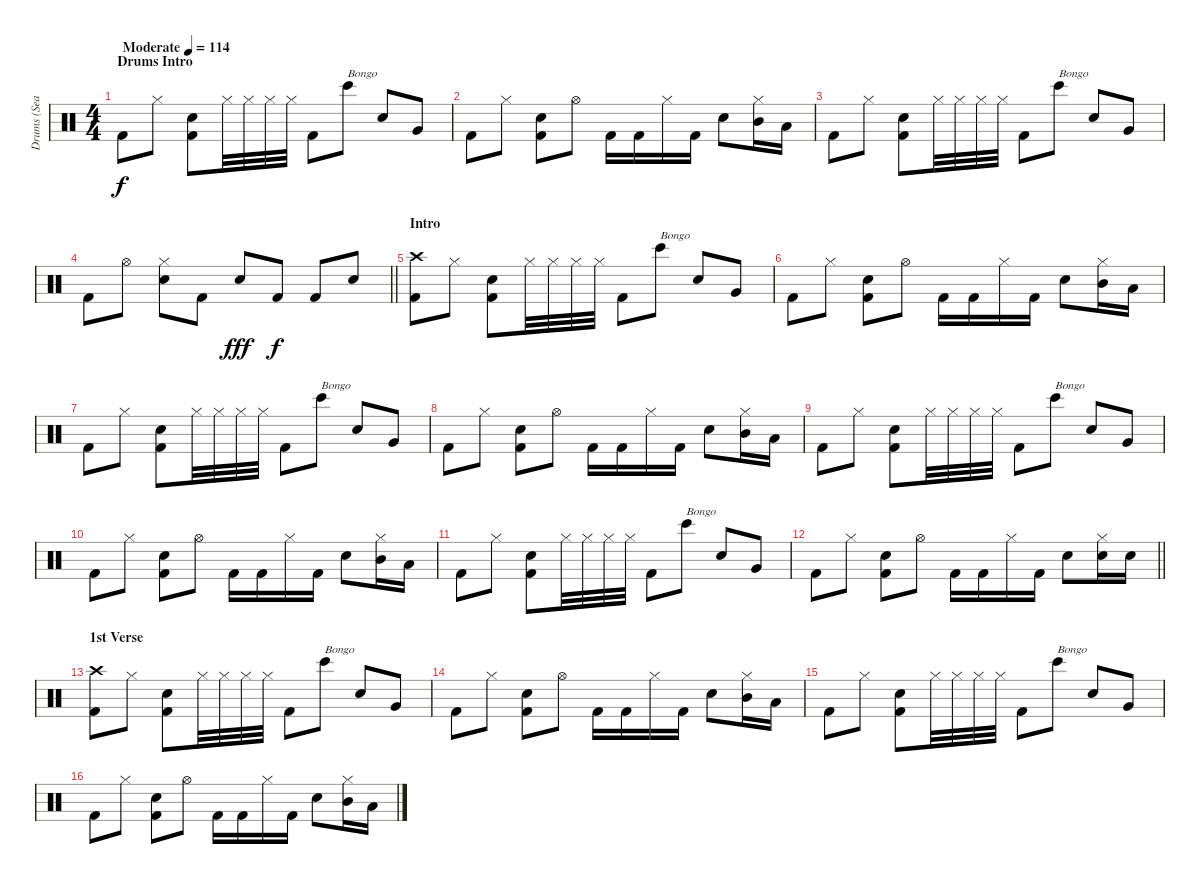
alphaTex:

\track ("Drums (Sean)" "Drums (Sea") {instrument percussion}
\staff {score}
\articulation defaults
\ts (4 4)
\section ("" "Drums Intro")
\tempo (114 "Moderate")
\clef neutral
\ks c "Kick (hit) 2".8{dy f} "Hi-Hat (closed)".8
("Snare (hit) 2" "Kick (hit) 2").8 "Hi-Hat (closed)".32 "Hi-Hat (closed)".32 "Hi-Hat (closed)".32 "Hi-Hat (closed)".32 "Kick (hit) 2".8 "Bongo High (hit)".8{txt "Bongo"} "Snare (hit) 2".8 "Very Low Tom (hit)".8 |
"Kick (hit) 2".8 "Hi-Hat (closed)".8 ("Snare (hit) 2" "Kick (hit) 2").8 "Hi-Hat (open)".8 "Kick (hit) 2".16 "Kick (hit) 2".16 "Hi-Hat (closed)".16 "Kick (hit) 2".16 "Snare (hit) 2".8 ("Hi-Hat (closed)" "Mid Tom (hit)").16 "Low Tom (hit)".16 |
"Kick (hit) 2".8 "Hi-Hat (closed)".8 ("Snare (hit) 2" "Kick (hit) 2").8 "Hi-Hat (closed)".32 "Hi-Hat (closed)".32 "Hi-Hat (closed)".32 "Hi-Hat (closed)".32 "Kick (hit) 2".8 "Bongo High (hit)".8{txt "Bongo"} "Snare (hit) 2".8 "Very Low Tom (hit)".8 |
\barLineRight lightlight "Kick (hit) 2".8 "Hi-Hat (open)".8
("Hi-Hat (closed)" "Snare (hit) 2").8 "Kick (hit) 2".8 "Snare (hit) 2".8{dy fff} "Kick (hit) 2".8{dy f} "Kick (hit) 2".8 "Snare (hit) 2".8 |
\section ("" "Intro")
("Crash high (hit)" "Kick (hit) 2").8 "Hi-Hat (closed)".8 ("Snare (hit) 2" "Kick (hit) 2").8 "Hi-Hat (closed)".32 "Hi-Hat (closed)".32 "Hi-Hat (closed)".32 "Hi-Hat (closed)".32 "Kick (hit) 2".8 "Bongo High (hit)".8{txt "Bongo"} "Snare (hit) 2".8 "Very Low Tom (hit)".8 |
"Kick (hit) 2".8 "Hi-Hat (closed)".8 ("Snare (hit) 2" "Kick (hit) 2").8 "Hi-Hat (open)".8 "Kick (hit) 2".16 "Kick (hit) 2".16 "Hi-Hat (closed)".16 "Kick (hit) 2".16 "Snare (hit) 2".8 ("Hi-Hat (closed)" "Mid Tom (hit)").16 "Low Tom (hit)".16 |
"Kick (hit) 2".8 "Hi-Hat (closed)".8 ("Snare (hit) 2" "Kick (hit) 2").8 "Hi-Hat (closed)".32 "Hi-Hat (closed)".32 "Hi-Hat (closed)".32 "Hi-Hat (closed)".32 "Kick (hit) 2".8 "Bongo High (hit)".8{txt "Bongo"} "Snare (hit) 2".8 "Very Low Tom (hit)".8 |
"Kick (hit) 2".8 "Hi-Hat (closed)".8 ("Snare (hit) 2" "Kick (hit) 2").8 "Hi-Hat (open)".8 "Kick (hit) 2".16 "Kick (hit) 2".16 "Hi-Hat (closed)".16 "Kick (hit) 2".16 "Snare (hit) 2".8 ("Hi-Hat (closed)" "Mid Tom (hit)").16 "Low Tom (hit)".16 |
"Kick (hit) 2".8 "Hi-Hat (closed)".8 ("Snare (hit) 2" "Kick (hit) 2").8 "Hi-Hat (closed)".32 "Hi-Hat (closed)".32 "Hi-Hat (closed)".32 "Hi-Hat (closed)".32 "Kick (hit) 2".8 "Bongo High (hit)".8{txt "Bongo"} "Snare (hit) 2".8 "Very Low Tom (hit)".8 |
"Kick (hit) 2".8 "Hi-Hat (closed)".8 ("Snare (hit) 2" "Kick (hit) 2").8 "Hi-Hat (open)".8 "Kick (hit) 2".16 "Kick (hit) 2".16 "Hi-Hat (closed)".16 "Kick (hit) 2".16 "Snare (hit) 2".8 ("Hi-Hat (closed)" "Mid Tom (hit)").16 "Low Tom (hit)".16 |
"Kick (hit) 2".8 "Hi-Hat (closed)".8 ("Snare (hit) 2" "Kick (hit) 2").8 "Hi-Hat (closed)".32 "Hi-Hat (closed)".32 "Hi-Hat (closed)".32 "Hi-Hat (closed)".32 "Kick (hit) 2".8 "Bongo High (hit)".8{txt "Bongo"} "Snare (hit) 2".8 "Very Low Tom (hit)".8 |
\barLineRight lightlight "Kick (hit) 2".8 "Hi-Hat (closed)".8
("Snare (hit) 2" "Kick (hit) 2").8 "Hi-Hat (open)".8 "Kick (hit) 2".16 "Kick (hit) 2".16 "Hi-Hat (closed)".16 "Kick (hit) 2".16 "Snare (hit) 2".8 ("Hi-Hat (closed)" "Snare (hit) 2").16 "Snare (hit) 2".16 |
\section ("" "1st Verse")
("Crash high (hit)" "Kick (hit) 2").8 "Hi-Hat (closed)".8 ("Snare (hit) 2" "Kick (hit) 2").8 "Hi-Hat (closed)".32 "Hi-Hat (closed)".32 "Hi-Hat (closed)".32 "Hi-Hat (closed)".32 "Kick (hit) 2".8 "Bongo High (hit)".8{txt "Bongo"} "Snare (hit) 2".8 "Very Low Tom (hit)".8 |
"Kick (hit) 2".8 "Hi-Hat (closed)".8 ("Snare (hit) 2" "Kick (hit) 2").8 "Hi-Hat (open)".8 "Kick (hit) 2".16 "Kick (hit) 2".16 "Hi-Hat (closed)".16 "Kick (hit) 2".16 "Snare (hit) 2".8 ("Hi-Hat (closed)" "Mid Tom (hit)").16 "Low Tom (hit)".16 |
"Kick (hit) 2".8 "Hi-Hat (closed)".8 ("Snare (hit) 2" "Kick (hit) 2").8 "Hi-Hat (closed)".32 "Hi-Hat (closed)".32 "Hi-Hat (closed)".32 "Hi-Hat (closed)".32 "Kick (hit) 2".8 "Bongo High (hit)".8{txt "Bongo"} "Snare (hit) 2".8 "Very Low Tom (hit)".8 |
"Kick (hit) 2".8 "Hi-Hat (closed)".8 ("Snare (hit) 2" "Kick (hit) 2").8 "Hi-Hat (open)".8 "Kick (hit) 2".16 "Kick (hit) 2".16 "Hi-Hat (closed)".16 "Kick (hit) 2".16 "Snare (hit) 2".8 ("Hi-Hat (closed)" "Mid Tom (hit)").16 "Low Tom (hit)".16
